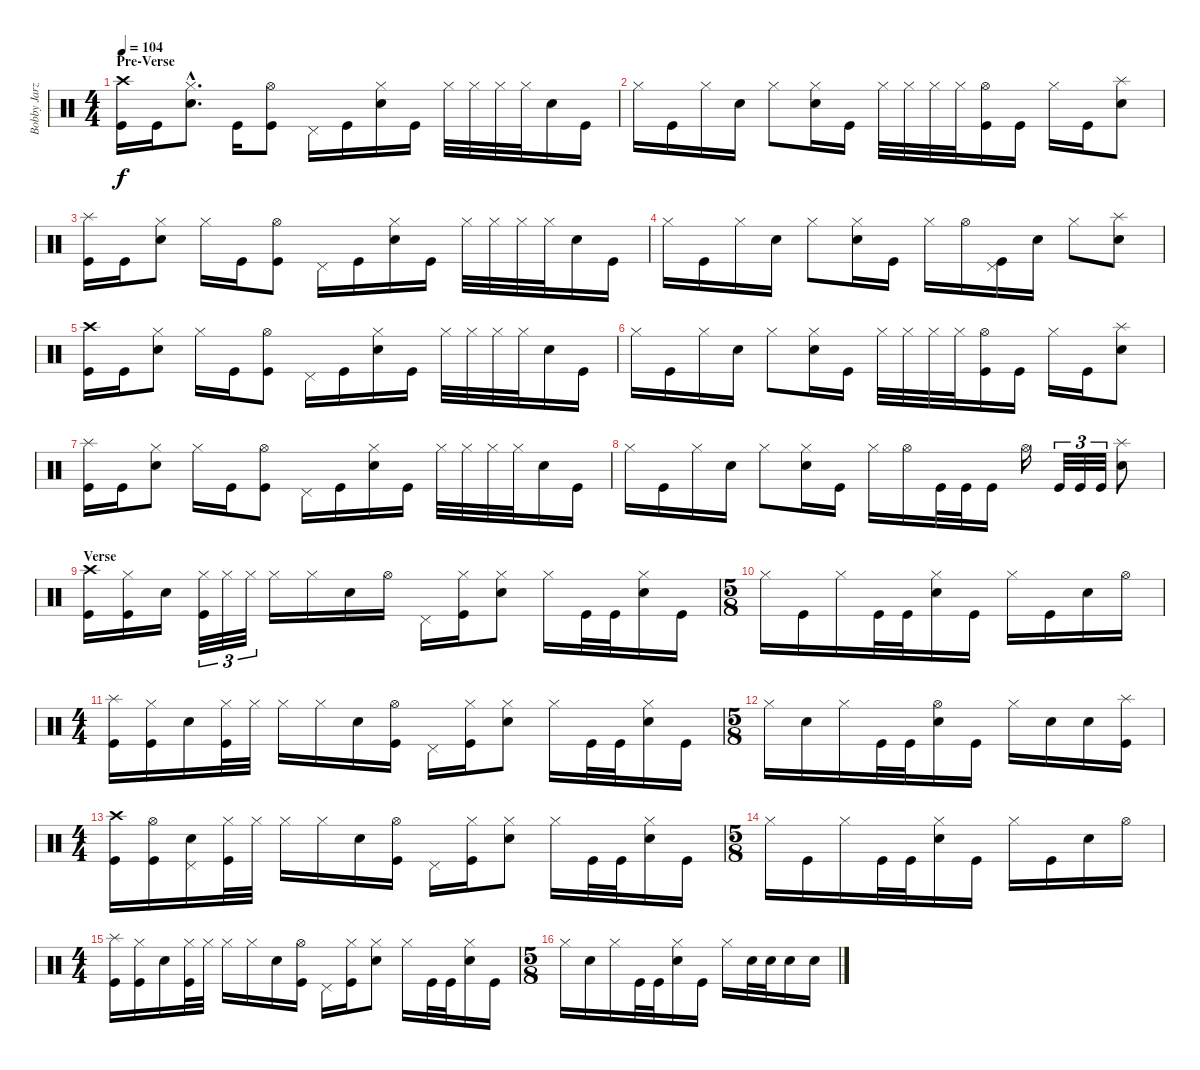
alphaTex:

\track ("Bobby Jarzombek" "Bobby Jarz") {instrument percussion}
\staff {score}
\articulation defaults
\ts (4 4)
\section ("" "Pre-Verse")
\tempo 104
\clef neutral
\ks c
("Crash high (hit)" "Kick (hit)").16{dy f} "Kick (hit)".16 ("Hi-Hat (closed)"{hac} "Electric Snare (hit)"{hac}).8{d} "Kick (hit)".16 ("Hi-Hat (open)" "Kick (hit)").8 "Pedal Hi-Hat (hit)".16 "Kick (hit)".16 ("Hi-Hat (closed)" "Electric Snare (hit)").16 "Kick (hit)".16 "Hi-Hat (closed)".32 "Hi-Hat (closed)".32 "Hi-Hat (closed)".32 "Hi-Hat (closed)".32 "Electric Snare (hit)".16 "Kick (hit)".16 |
"Hi-Hat (closed)".16 "Kick (hit)".16 "Hi-Hat (closed)".16 "Electric Snare (hit)".16 "Hi-Hat (closed)".8 ("Hi-Hat (closed)" "Electric Snare (hit)").16 "Kick (hit)".16 "Hi-Hat (closed)".32 "Hi-Hat (closed)".32 "Hi-Hat (closed)".32 "Hi-Hat (closed)".32 ("Hi-Hat (open)" "Kick (hit)").16 "Kick (hit)".16 "Hi-Hat (closed)".16 "Kick (hit)".16 ("Splash (hit)" "Electric Snare (hit)").8 |
("Splash (hit)" "Kick (hit)").16 "Kick (hit)".16 ("Hi-Hat (closed)" "Electric Snare (hit)").8 "Hi-Hat (closed)".16 "Kick (hit)".16 ("Hi-Hat (open)" "Kick (hit)").8 "Pedal Hi-Hat (hit)".16 "Kick (hit)".16 ("Hi-Hat (closed)" "Electric Snare (hit)").16 "Kick (hit)".16 "Hi-Hat (closed)".32 "Hi-Hat (closed)".32 "Hi-Hat (closed)".32 "Hi-Hat (closed)".32 "Electric Snare (hit)".16 "Kick (hit)".16 |
"Hi-Hat (closed)".16 "Kick (hit)".16 "Hi-Hat (closed)".16 "Electric Snare (hit)".16 "Hi-Hat (closed)".8 ("Hi-Hat (closed)" "Electric Snare (hit)").16 "Kick (hit)".16 "Hi-Hat (closed)".16 "Hi-Hat (open)".16 ("Pedal Hi-Hat (hit)" "Kick (hit)").16 "Electric Snare (hit)".16 "Hi-Hat (closed)".8 ("Splash (hit)" "Electric Snare (hit)").8 |
("Crash high (hit)" "Kick (hit)").16 "Kick (hit)".16 ("Hi-Hat (closed)" "Electric Snare (hit)").8 "Hi-Hat (closed)".16 "Kick (hit)".16 ("Hi-Hat (open)" "Kick (hit)").8 "Pedal Hi-Hat (hit)".16 "Kick (hit)".16 ("Hi-Hat (closed)" "Electric Snare (hit)").16 "Kick (hit)".16 "Hi-Hat (closed)".32 "Hi-Hat (closed)".32 "Hi-Hat (closed)".32 "Hi-Hat (closed)".32 "Electric Snare (hit)".16 "Kick (hit)".16 |
"Hi-Hat (closed)".16 "Kick (hit)".16 "Hi-Hat (closed)".16 "Electric Snare (hit)".16 "Hi-Hat (closed)".8 ("Hi-Hat (closed)" "Electric Snare (hit)").16 "Kick (hit)".16 "Hi-Hat (closed)".32 "Hi-Hat (closed)".32 "Hi-Hat (closed)".32 "Hi-Hat (closed)".32 ("Hi-Hat (open)" "Kick (hit)").16 "Kick (hit)".16 "Hi-Hat (closed)".16 "Kick (hit)".16 ("Splash (hit)" "Electric Snare (hit)").8 |
("Splash (hit)" "Kick (hit)").16 "Kick (hit)".16 ("Hi-Hat (closed)" "Electric Snare (hit)").8 "Hi-Hat (closed)".16 "Kick (hit)".16 ("Hi-Hat (open)" "Kick (hit)").8 "Pedal Hi-Hat (hit)".16 "Kick (hit)".16 ("Hi-Hat (closed)" "Electric Snare (hit)").16 "Kick (hit)".16 "Hi-Hat (closed)".32 "Hi-Hat (closed)".32 "Hi-Hat (closed)".32 "Hi-Hat (closed)".32 "Electric Snare (hit)".16 "Kick (hit)".16 |
"Hi-Hat (closed)".16 "Kick (hit)".16 "Hi-Hat (closed)".16 "Electric Snare (hit)".16 "Hi-Hat (closed)".8 ("Hi-Hat (closed)" "Electric Snare (hit)").16 "Kick (hit)".16 "Hi-Hat (closed)".16 "Hi-Hat (open)".16 "Kick (hit)".32 "Kick (hit)".32 "Kick (hit)".16 "Hi-Hat (open)".16 "Kick (hit)".32{tu (3 2)} "Kick (hit)".32{tu (3 2)} "Kick (hit)".32{tu (3 2)} ("Splash (hit)" "Electric Snare (hit)").8 |
\section ("" "Verse")
("Crash high (hit)" "Kick (hit)").16 ("Hi-Hat (closed)" "Kick (hit)").16 "Electric Snare (hit)".16 ("Hi-Hat (closed)" "Kick (hit)").32{tu (3 2)} "Hi-Hat (closed)".32{tu (3 2)} "Hi-Hat (closed)".32{tu (3 2)} "Hi-Hat (closed)".16 "Hi-Hat (closed)".16 "Electric Snare (hit)".16 "Hi-Hat (open)".16 "Pedal Hi-Hat (hit)".16 ("Hi-Hat (closed)" "Kick (hit)").16 ("Hi-Hat (closed)" "Electric Snare (hit)").8 "Hi-Hat (closed)".16 "Kick (hit)".32 "Kick (hit)".32 ("Hi-Hat (closed)" "Electric Snare (hit)").16 "Kick (hit)".16 |
\ts (5 8)
"Hi-Hat (closed)".16 "Kick (hit)".16 "Hi-Hat (closed)".16 "Kick (hit)".32 "Kick (hit)".32 ("Hi-Hat (closed)" "Electric Snare (hit)").16 "Kick (hit)".16 "Hi-Hat (closed)".16 "Kick (hit)".16 "Electric Snare (hit)".16 "Hi-Hat (open)".16 |
\ts (4 4)
("Splash (hit)" "Kick (hit)").16 ("Hi-Hat (closed)" "Kick (hit)").16 "Electric Snare (hit)".16 ("Hi-Hat (closed)" "Kick (hit)").32 "Hi-Hat (closed)".32 "Hi-Hat (closed)".16 "Hi-Hat (closed)".16 "Electric Snare (hit)".16 ("Hi-Hat (open)" "Kick (hit)").16 "Pedal Hi-Hat (hit)".16 ("Hi-Hat (closed)" "Kick (hit)").16 ("Hi-Hat (closed)" "Electric Snare (hit)").8 "Hi-Hat (closed)".16 "Kick (hit)".32 "Kick (hit)".32 ("Hi-Hat (closed)" "Electric Snare (hit)").16 "Kick (hit)".16 |
\ts (5 8)
"Hi-Hat (closed)".16 "Electric Snare (hit)".16 "Hi-Hat (closed)".16 "Kick (hit)".32 "Kick (hit)".32 ("Hi-Hat (open)" "Electric Snare (hit)").16 "Kick (hit)".16 "Hi-Hat (closed)".16 "Electric Snare (hit)".16 "Electric Snare (hit)".16 ("Splash (hit)" "Kick (hit)").16 |
\ts (4 4)
("Crash high (hit)" "Kick (hit)").16 ("Hi-Hat (open)" "Kick (hit)").16 ("Electric Snare (hit)" "Pedal Hi-Hat (hit)").16 ("Hi-Hat (closed)" "Kick (hit)").32 "Hi-Hat (closed)".32 "Hi-Hat (closed)".16 "Hi-Hat (closed)".16 "Electric Snare (hit)".16 ("Hi-Hat (open)" "Kick (hit)").16 "Pedal Hi-Hat (hit)".16 ("Hi-Hat (closed)" "Kick (hit)").16 ("Hi-Hat (closed)" "Electric Snare (hit)").8 "Hi-Hat (closed)".16 "Kick (hit)".32 "Kick (hit)".32 ("Hi-Hat (closed)" "Electric Snare (hit)").16 "Kick (hit)".16 |
\ts (5 8)
"Hi-Hat (closed)".16 "Kick (hit)".16 "Hi-Hat (closed)".16 "Kick (hit)".32 "Kick (hit)".32 ("Hi-Hat (closed)" "Electric Snare (hit)").16 "Kick (hit)".16 "Hi-Hat (closed)".16 "Kick (hit)".16 "Electric Snare (hit)".16 "Hi-Hat (open)".16 |
\ts (4 4)
("Splash (hit)" "Kick (hit)").16 ("Hi-Hat (closed)" "Kick (hit)").16 "Electric Snare (hit)".16 ("Hi-Hat (closed)" "Kick (hit)").32 "Hi-Hat (closed)".32 "Hi-Hat (closed)".16 "Hi-Hat (closed)".16 "Electric Snare (hit)".16 ("Hi-Hat (open)" "Kick (hit)").16 "Pedal Hi-Hat (hit)".16 ("Hi-Hat (closed)" "Kick (hit)").16 ("Hi-Hat (closed)" "Electric Snare (hit)").8 "Hi-Hat (closed)".16 "Kick (hit)".32 "Kick (hit)".32 ("Hi-Hat (closed)" "Electric Snare (hit)").16 "Kick (hit)".16 |
\ts (5 8)
"Hi-Hat (closed)".16 "Electric Snare (hit)".16 "Hi-Hat (closed)".16 "Kick (hit)".32 "Kick (hit)".32 ("Hi-Hat (closed)" "Electric Snare (hit)").16 "Kick (hit)".16 "Hi-Hat (closed)".16 "Electric Snare (hit)".32 "Electric Snare (hit)".32 "Electric Snare (hit)".16 "Electric Snare (hit)".16
